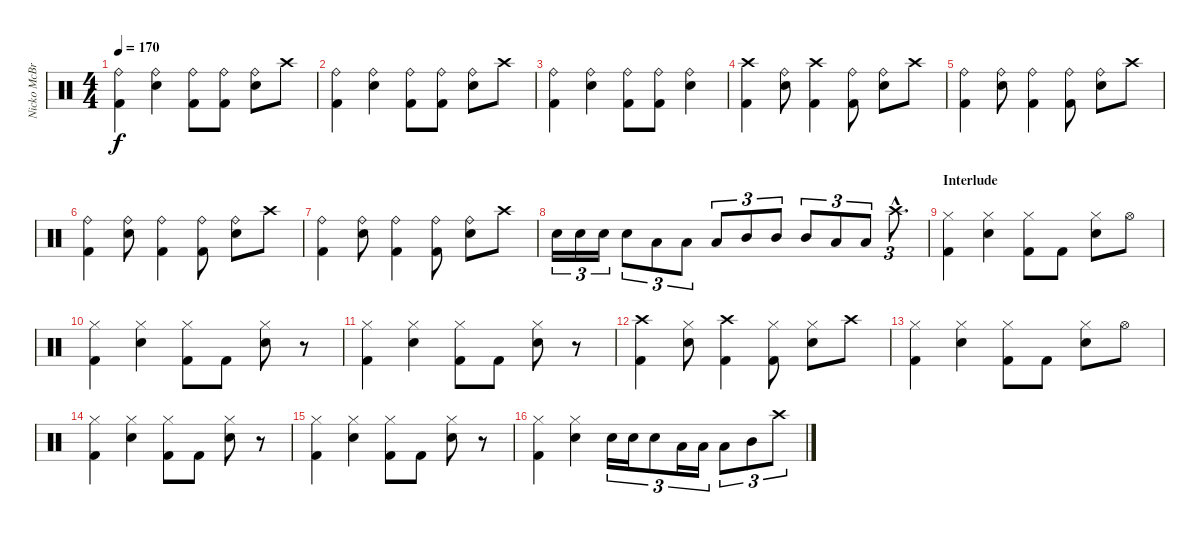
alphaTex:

\track ("Nicko McBrain" "Nicko McBr") {instrument percussion}
\staff {score}
\articulation defaults
\ts (4 4)
\tempo 170
\clef neutral
\ks c
("Ride (bell)" "Kick (hit) 2").4{dy f} ("Ride (bell)" "Snare (hit) 2").4 ("Ride (bell)" "Kick (hit) 2").8 ("Ride (bell)" "Kick (hit) 2").8 ("Ride (bell)" "Snare (hit) 2").8 "Crash high (hit)".8 |
("Ride (bell)" "Kick (hit) 2").4 ("Ride (bell)" "Snare (hit) 2").4 ("Ride (bell)" "Kick (hit) 2").8 ("Ride (bell)" "Kick (hit) 2").8 ("Ride (bell)" "Snare (hit) 2").8 "Crash high (hit)".8 |
("Ride (bell)" "Kick (hit) 2").4 ("Ride (bell)" "Snare (hit) 2").4 ("Ride (bell)" "Kick (hit) 2").8 ("Ride (bell)" "Kick (hit) 2").8 ("Ride (bell)" "Snare (hit) 2").4 |
("Crash high (hit)" "Kick (hit) 2").4 ("Ride (bell)" "Snare (hit) 2").8 ("Crash high (hit)" "Kick (hit) 2").4 ("Ride (bell)" "Kick (hit) 2").8 ("Ride (bell)" "Snare (hit) 2").8 "Crash high (hit)".8 |
("Ride (bell)" "Kick (hit) 2").4 ("Ride (bell)" "Snare (hit) 2").8 ("Ride (bell)" "Kick (hit) 2").4 ("Ride (bell)" "Kick (hit) 2").8 ("Ride (bell)" "Snare (hit) 2").8 "Crash high (hit)".8 |
("Ride (bell)" "Kick (hit) 2").4 ("Ride (bell)" "Snare (hit) 2").8 ("Ride (bell)" "Kick (hit) 2").4 ("Ride (bell)" "Kick (hit) 2").8 ("Ride (bell)" "Snare (hit) 2").8 "Crash high (hit)".8 |
("Ride (bell)" "Kick (hit) 2").4 ("Ride (bell)" "Snare (hit) 2").8 ("Ride (bell)" "Kick (hit) 2").4 ("Ride (bell)" "Kick (hit) 2").8 ("Ride (bell)" "Snare (hit) 2").8 "Crash high (hit)".8 |
"Snare (hit) 2".16{tu (3 2)} "Snare (hit) 2".16{tu (3 2)} "Snare (hit) 2".16{tu (3 2)} "Snare (hit) 2".8{tu (3 2)} "Low Tom (hit)".8{tu (3 2)} "Low Tom (hit)".8{tu (3 2)} "Low Tom (hit)".8{tu (3 2)} "Mid Tom (hit)".8{tu (3 2)} "Mid Tom (hit)".8{tu (3 2)} "Mid Tom (hit)".8{tu (3 2)} "Low Tom (hit)".8{tu (3 2)} "Low Tom (hit)".8{tu (3 2)} "Crash high (hit)"{hac}.8{d tu (3 2)} |
\section ("" "Interlude")
("Hi-Hat (closed)" "Kick (hit) 2").4 ("Hi-Hat (closed)" "Snare (hit) 2").4 ("Hi-Hat (closed)" "Kick (hit) 2").8 "Kick (hit) 2".8 ("Hi-Hat (closed)" "Snare (hit) 2").8 "Hi-Hat (open)".8 |
("Hi-Hat (closed)" "Kick (hit) 2").4 ("Hi-Hat (closed)" "Snare (hit) 2").4 ("Hi-Hat (closed)" "Kick (hit) 2").8 "Kick (hit) 2".8 ("Hi-Hat (closed)" "Snare (hit) 2").8 r.8 |
("Hi-Hat (closed)" "Kick (hit) 2").4 ("Hi-Hat (closed)" "Snare (hit) 2").4 ("Hi-Hat (closed)" "Kick (hit) 2").8 "Kick (hit) 2".8 ("Hi-Hat (closed)" "Snare (hit) 2").8 r.8 |
("Crash high (hit)" "Kick (hit) 2").4 ("Hi-Hat (closed)" "Snare (hit) 2").8 ("Crash high (hit)" "Kick (hit) 2").4 ("Hi-Hat (closed)" "Kick (hit) 2").8 ("Hi-Hat (closed)" "Snare (hit) 2").8 "Crash high (hit)".8 |
("Hi-Hat (closed)" "Kick (hit) 2").4 ("Hi-Hat (closed)" "Snare (hit) 2").4 ("Hi-Hat (closed)" "Kick (hit) 2").8 "Kick (hit) 2".8 ("Hi-Hat (closed)" "Snare (hit) 2").8 "Hi-Hat (open)".8 |
("Hi-Hat (closed)" "Kick (hit) 2").4 ("Hi-Hat (closed)" "Snare (hit) 2").4 ("Hi-Hat (closed)" "Kick (hit) 2").8 "Kick (hit) 2".8 ("Hi-Hat (closed)" "Snare (hit) 2").8 r.8 |
("Hi-Hat (closed)" "Kick (hit) 2").4 ("Hi-Hat (closed)" "Snare (hit) 2").4 ("Hi-Hat (closed)" "Kick (hit) 2").8 "Kick (hit) 2".8 ("Hi-Hat (closed)" "Snare (hit) 2").8 r.8 |
("Hi-Hat (closed)" "Kick (hit) 2").4 ("Hi-Hat (closed)" "Snare (hit) 2").4 "Snare (hit) 2".16{tu (3 2)} "Snare (hit) 2".16{tu (3 2)} "Snare (hit) 2".8{tu (3 2)} "Low Tom (hit)".16{tu (3 2)} "Low Tom (hit)".16{tu (3 2)} "Low Tom (hit)".8{tu (3 2)} "Mid Tom (hit)".8{tu (3 2)} "Crash high (hit)".8{tu (3 2)}
